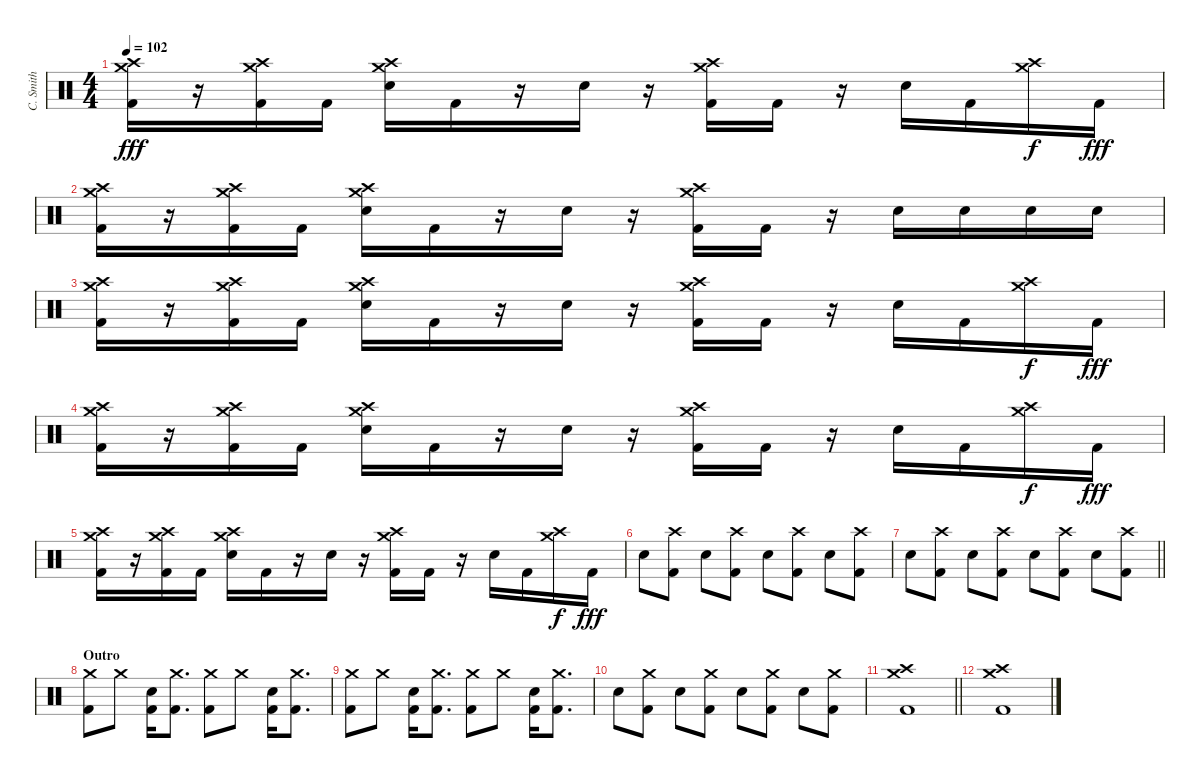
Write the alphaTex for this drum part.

\track ("C. Smith" "C. Smith") {instrument percussion}
\staff {score}
\articulation defaults
\ts (4 4)
\tempo 102
\clef neutral
\ks c
("Crash medium (hit)" "Crash high (hit)" "Kick (hit) 2").16{dy fff} r.16 ("Crash medium (hit)" "Crash high (hit)" "Kick (hit) 2").16 "Kick (hit) 2".16 ("Crash medium (hit)" "Crash high (hit)" "Snare (hit) 2").16 "Kick (hit) 2".16 r.16 "Snare (hit) 2".16 r.16 ("Crash medium (hit)" "Crash high (hit)" "Kick (hit) 2").16 "Kick (hit) 2".16 r.16 "Snare (hit) 2".16 "Kick (hit) 2".16 ("Crash medium (hit)" "Crash high (hit)").16{dy f} "Kick (hit) 2".16{dy fff} |
("Crash medium (hit)" "Crash high (hit)" "Kick (hit) 2").16 r.16 ("Crash medium (hit)" "Crash high (hit)" "Kick (hit) 2").16 "Kick (hit) 2".16 ("Crash medium (hit)" "Crash high (hit)" "Snare (hit) 2").16 "Kick (hit) 2".16 r.16 "Snare (hit) 2".16 r.16 ("Crash medium (hit)" "Crash high (hit)" "Kick (hit) 2").16 "Kick (hit) 2".16 r.16 "Snare (hit) 2".16 "Snare (hit) 2".16 "Snare (hit) 2".16 "Snare (hit) 2".16 |
("Crash medium (hit)" "Crash high (hit)" "Kick (hit) 2").16 r.16 ("Crash medium (hit)" "Crash high (hit)" "Kick (hit) 2").16 "Kick (hit) 2".16 ("Crash medium (hit)" "Crash high (hit)" "Snare (hit) 2").16 "Kick (hit) 2".16 r.16 "Snare (hit) 2".16 r.16 ("Crash medium (hit)" "Crash high (hit)" "Kick (hit) 2").16 "Kick (hit) 2".16 r.16 "Snare (hit) 2".16 "Kick (hit) 2".16 ("Crash medium (hit)" "Crash high (hit)").16{dy f} "Kick (hit) 2".16{dy fff} |
("Crash medium (hit)" "Crash high (hit)" "Kick (hit) 2").16 r.16 ("Crash medium (hit)" "Crash high (hit)" "Kick (hit) 2").16 "Kick (hit) 2".16 ("Crash medium (hit)" "Crash high (hit)" "Snare (hit) 2").16 "Kick (hit) 2".16 r.16 "Snare (hit) 2".16 r.16 ("Crash medium (hit)" "Crash high (hit)" "Kick (hit) 2").16 "Kick (hit) 2".16 r.16 "Snare (hit) 2".16 "Kick (hit) 2".16 ("Crash medium (hit)" "Crash high (hit)").16{dy f} "Kick (hit) 2".16{dy fff} |
("Crash medium (hit)" "Crash high (hit)" "Kick (hit) 2").16 r.16 ("Crash medium (hit)" "Crash high (hit)" "Kick (hit) 2").16 "Kick (hit) 2".16 ("Crash medium (hit)" "Crash high (hit)" "Snare (hit) 2").16 "Kick (hit) 2".16 r.16 "Snare (hit) 2".16 r.16 ("Crash medium (hit)" "Crash high (hit)" "Kick (hit) 2").16 "Kick (hit) 2".16 r.16 "Snare (hit) 2".16 "Kick (hit) 2".16 ("Crash medium (hit)" "Crash high (hit)").16{dy f} "Kick (hit) 2".16{dy fff} |
"Snare (hit) 2".8 ("Crash high (hit)" "Kick (hit) 2").8 "Snare (hit) 2".8 ("Crash high (hit)" "Kick (hit) 2").8 "Snare (hit) 2".8 ("Crash high (hit)" "Kick (hit) 2").8 "Snare (hit) 2".8 ("Crash high (hit)" "Kick (hit) 2").8 |
\barLineRight lightlight "Snare (hit) 2".8
("Crash high (hit)" "Kick (hit) 2").8 "Snare (hit) 2".8 ("Crash high (hit)" "Kick (hit) 2").8 "Snare (hit) 2".8 ("Crash high (hit)" "Kick (hit) 2").8 "Snare (hit) 2".8 ("Crash high (hit)" "Kick (hit) 2").8 |
\section ("" "Outro")
("Crash medium (hit)" "Kick (hit) 2").8 "Crash medium (hit)".8 ("Snare (hit) 2" "Kick (hit) 2").16 ("Crash medium (hit)" "Kick (hit) 2").8{d} ("Crash medium (hit)" "Kick (hit) 2").8 "Crash medium (hit)".8 ("Snare (hit) 2" "Kick (hit) 2").16 ("Crash medium (hit)" "Kick (hit) 2").8{d} |
("Crash medium (hit)" "Kick (hit) 2").8 "Crash medium (hit)".8 ("Snare (hit) 2" "Kick (hit) 2").16 ("Crash medium (hit)" "Kick (hit) 2").8{d} ("Crash medium (hit)" "Kick (hit) 2").8 "Crash medium (hit)".8 ("Snare (hit) 2" "Kick (hit) 2").16 ("Crash medium (hit)" "Kick (hit) 2").8{d} |
"Snare (hit) 2".8 ("Crash medium (hit)" "Kick (hit) 2").8 "Snare (hit) 2".8 ("Crash medium (hit)" "Kick (hit) 2").8 "Snare (hit) 2".8 ("Crash medium (hit)" "Kick (hit) 2").8 "Snare (hit) 2".8 ("Crash medium (hit)" "Kick (hit) 2").8 |
\barLineRight lightlight
("Crash medium (hit)" "Crash high (hit)" "Kick (hit) 2").1{volume 13} |
("Crash medium (hit)" "Crash high (hit)" "Kick (hit) 2").1
